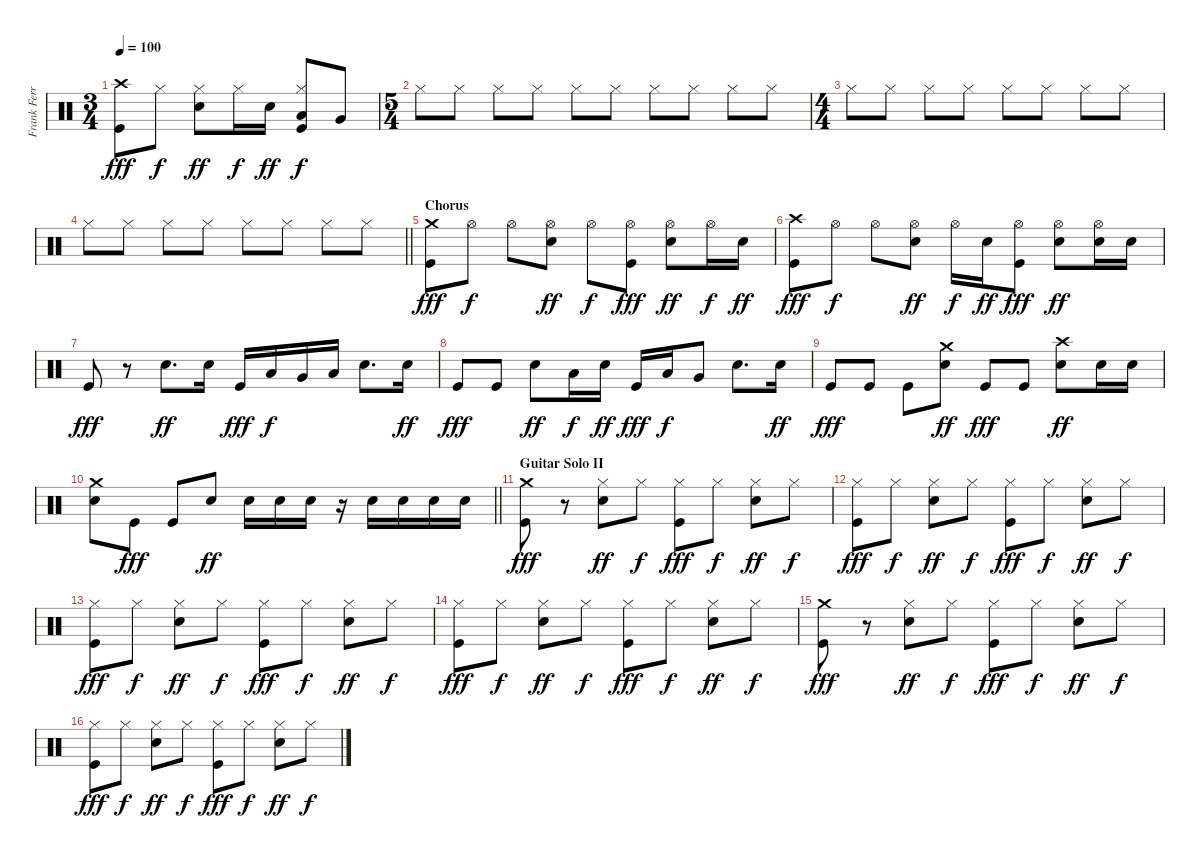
\track ("Frank Ferrer" "Frank Ferr") {instrument percussion}
\staff {score}
\articulation defaults
\ts (3 4)
\tempo 100
\clef neutral
\ks c
("Kick (hit)" "Crash high (hit)").8{dy fff} "Hi-Hat (closed)".8{dy f} ("Snare (hit) 2" "Hi-Hat (closed)").8{dy ff} "Hi-Hat (closed)".16{dy f} "Snare (hit) 2".16{dy ff} ("Kick (hit)" "Low Tom (hit)" "Hi-Hat (closed)").8{dy f} "Very Low Tom (hit)".8 |
\ts (5 4)
"Hi-Hat (closed)".8 "Hi-Hat (closed)".8 "Hi-Hat (closed)".8 "Hi-Hat (closed)".8 "Hi-Hat (closed)".8 "Hi-Hat (closed)".8 "Hi-Hat (closed)".8 "Hi-Hat (closed)".8 "Hi-Hat (closed)".8 "Hi-Hat (closed)".8 |
\ts (4 4)
"Hi-Hat (closed)".8 "Hi-Hat (closed)".8 "Hi-Hat (closed)".8 "Hi-Hat (closed)".8 "Hi-Hat (closed)".8 "Hi-Hat (closed)".8 "Hi-Hat (closed)".8 "Hi-Hat (closed)".8 |
\barLineRight lightlight "Hi-Hat (closed)".8 "Hi-Hat (closed)".8 "Hi-Hat (closed)".8 "Hi-Hat (closed)".8 "Hi-Hat (closed)".8 "Hi-Hat (closed)".8 "Hi-Hat (closed)".8 "Hi-Hat (closed)".8
|
\section ("" "Chorus")
("Kick (hit)" "Crash medium (hit)").8{dy fff} "Hi-Hat (open)".8{dy f} "Hi-Hat (open)".8 ("Snare (hit) 2" "Hi-Hat (open)").8{dy ff} "Hi-Hat (open)".8{dy f} ("Kick (hit)" "Hi-Hat (open)").8{dy fff} ("Snare (hit) 2" "Hi-Hat (open)").8{dy ff} "Hi-Hat (open)".16{dy f} "Snare (hit) 2".16{dy ff} |
("Kick (hit)" "Crash high (hit)").8{dy fff} "Hi-Hat (open)".8{dy f} "Hi-Hat (open)".8 ("Snare (hit) 2" "Hi-Hat (open)").8{dy ff} "Hi-Hat (open)".16{dy f} "Snare (hit) 2".16{dy ff} ("Kick (hit)" "Hi-Hat (open)").8{dy fff} ("Snare (hit) 2" "Hi-Hat (open)").8{dy ff} ("Snare (hit) 2" "Hi-Hat (open)").16 "Snare (hit) 2".16 |
"Kick (hit)".8{dy fff} r.8 "Snare (hit) 2".8{d dy ff} "Snare (hit) 2".16 "Kick (hit)".16{dy fff} "Low Tom (hit)".16{dy f} "Very Low Tom (hit)".16 "Low Floor Tom (hit)".16 "Snare (hit) 2".8{d} "Snare (hit) 2".16{dy ff} |
"Kick (hit)".8{dy fff} "Kick (hit)".8 "Snare (hit) 2".8{dy ff} "Low Tom (hit)".16{dy f} "Snare (hit) 2".16{dy ff} "Kick (hit)".16{dy fff} "Low Tom (hit)".16{dy f} "Very Low Tom (hit)".8 "Snare (hit) 2".8{d} "Snare (hit) 2".16{dy ff} |
"Kick (hit)".8{dy fff} "Kick (hit)".8 "Kick (hit)".8 ("Snare (hit) 2" "Crash medium (hit)").8{dy ff} "Kick (hit)".8{dy fff} "Kick (hit)".8 ("Snare (hit) 2" "Crash high (hit)").8{dy ff} "Snare (hit) 2".16 "Snare (hit) 2".16 |
\barLineRight lightlight
("Snare (hit) 2" "Crash medium (hit)").8 "Kick (hit)".8{dy fff} "Kick (hit)".8 "Snare (hit) 2".8{dy ff} "Snare (hit) 2".16 "Snare (hit) 2".16 "Snare (hit) 2".16 r.16 "Snare (hit) 2".16 "Snare (hit) 2".16 "Snare (hit) 2".16 "Snare (hit) 2".16 |
\section ("" "Guitar Solo II")
("Kick (hit)" "Crash medium (hit)").8{dy fff} r.8 ("Snare (hit) 2" "Hi-Hat (closed)").8{dy ff} "Hi-Hat (closed)".8{dy f} ("Kick (hit)" "Hi-Hat (closed)").8{dy fff} "Hi-Hat (closed)".8{dy f} ("Snare (hit) 2" "Hi-Hat (closed)").8{dy ff} "Hi-Hat (closed)".8{dy f} |
("Kick (hit)" "Hi-Hat (closed)").8{dy fff} "Hi-Hat (closed)".8{dy f} ("Snare (hit) 2" "Hi-Hat (closed)").8{dy ff} "Hi-Hat (closed)".8{dy f} ("Kick (hit)" "Hi-Hat (closed)").8{dy fff} "Hi-Hat (closed)".8{dy f} ("Snare (hit) 2" "Hi-Hat (closed)").8{dy ff} "Hi-Hat (closed)".8{dy f} |
("Kick (hit)" "Hi-Hat (closed)").8{dy fff} "Hi-Hat (closed)".8{dy f} ("Snare (hit) 2" "Hi-Hat (closed)").8{dy ff} "Hi-Hat (closed)".8{dy f} ("Kick (hit)" "Hi-Hat (closed)").8{dy fff} "Hi-Hat (closed)".8{dy f} ("Snare (hit) 2" "Hi-Hat (closed)").8{dy ff} "Hi-Hat (closed)".8{dy f} |
("Kick (hit)" "Hi-Hat (closed)").8{dy fff} "Hi-Hat (closed)".8{dy f} ("Snare (hit) 2" "Hi-Hat (closed)").8{dy ff} "Hi-Hat (closed)".8{dy f} ("Kick (hit)" "Hi-Hat (closed)").8{dy fff} "Hi-Hat (closed)".8{dy f} ("Snare (hit) 2" "Hi-Hat (closed)").8{dy ff} "Hi-Hat (closed)".8{dy f} |
("Kick (hit)" "Crash medium (hit)").8{dy fff} r.8 ("Snare (hit) 2" "Hi-Hat (closed)").8{dy ff} "Hi-Hat (closed)".8{dy f} ("Kick (hit)" "Hi-Hat (closed)").8{dy fff} "Hi-Hat (closed)".8{dy f} ("Snare (hit) 2" "Hi-Hat (closed)").8{dy ff} "Hi-Hat (closed)".8{dy f} |
("Kick (hit)" "Hi-Hat (closed)").8{dy fff} "Hi-Hat (closed)".8{dy f} ("Snare (hit) 2" "Hi-Hat (closed)").8{dy ff} "Hi-Hat (closed)".8{dy f} ("Kick (hit)" "Hi-Hat (closed)").8{dy fff} "Hi-Hat (closed)".8{dy f} ("Snare (hit) 2" "Hi-Hat (closed)").8{dy ff} "Hi-Hat (closed)".8{dy f}
